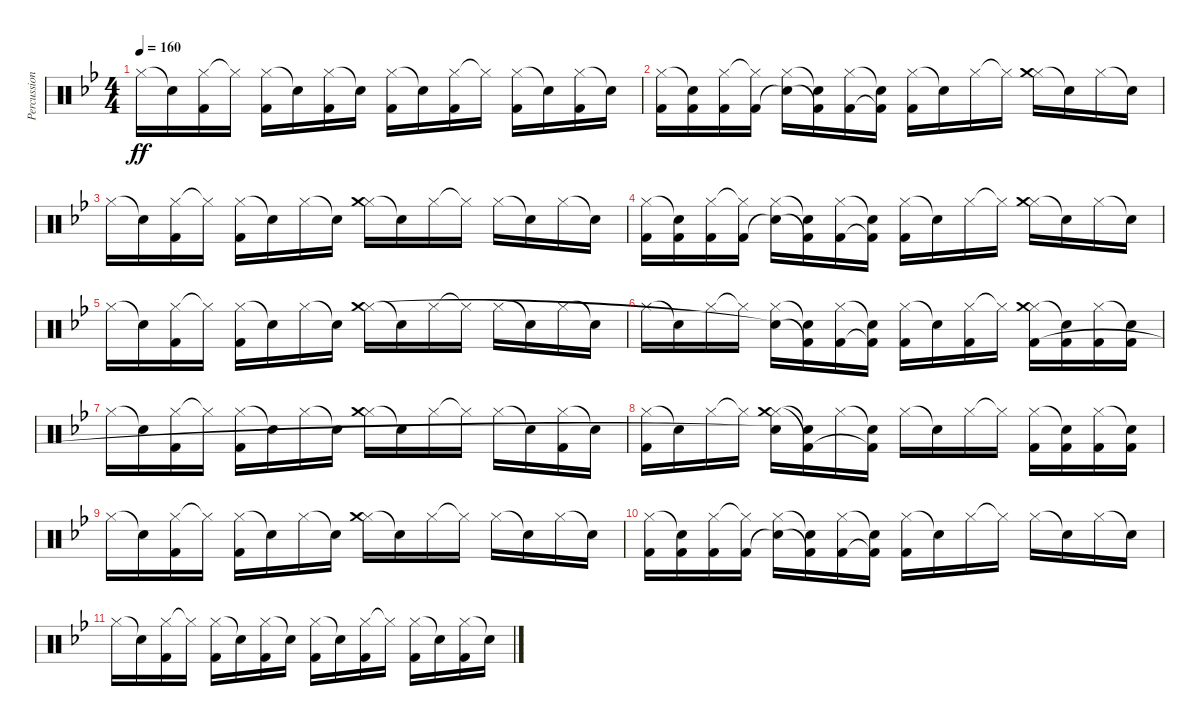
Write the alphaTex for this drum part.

\track ("Percussion" "Percussion") {instrument percussion}
\staff {score}
\articulation defaults
\ts (4 4)
\tempo 160
\clef neutral
\ks bb "Hi-Hat (closed)".16{dy ff} "Snare (hit)"{t}.16
("Hi-Hat (closed)" "Kick (hit) 2").16 "Hi-Hat (closed)"{t}.16 ("Hi-Hat (closed)" "Kick (hit) 2").16 "Snare (hit)"{t}.16 ("Hi-Hat (closed)" "Kick (hit) 2").16 "Snare (hit)"{t}.16 ("Hi-Hat (closed)" "Kick (hit) 2").16 "Snare (hit)"{t}.16 ("Hi-Hat (closed)" "Kick (hit) 2").16 "Hi-Hat (closed)"{t}.16 ("Hi-Hat (closed)" "Kick (hit) 2").16 "Snare (hit)"{t}.16 ("Hi-Hat (closed)" "Kick (hit) 2").16 "Snare (hit)"{t}.16 |
("Hi-Hat (closed)" "Kick (hit) 2").16 ("Snare (hit)"{t} "Kick (hit) 2").16 ("Hi-Hat (closed)" "Kick (hit) 2").16 ("Hi-Hat (closed)"{t} "Kick (hit) 2").16 ("Hi-Hat (closed)" "Snare (hit)"{t}).16 ("Snare (hit)"{t} "Kick (hit) 2"{t}).16 ("Hi-Hat (closed)" "Kick (hit) 2").16 ("Snare (hit)"{t} "Kick (hit) 2"{t}).16 ("Hi-Hat (closed)" "Kick (hit) 2").16 "Snare (hit)"{t}.16 "Hi-Hat (closed)".16 "Hi-Hat (closed)"{t}.16 ("Hi-Hat (closed)" "Crash medium (hit)").16 "Snare (hit)"{t}.16 "Hi-Hat (closed)".16 "Snare (hit)"{t}.16 |
"Hi-Hat (closed)".16 "Snare (hit)"{t}.16 ("Hi-Hat (closed)" "Kick (hit) 2").16 "Hi-Hat (closed)"{t}.16 ("Hi-Hat (closed)" "Kick (hit) 2").16 "Snare (hit)"{t}.16 "Hi-Hat (closed)".16 "Snare (hit)"{t}.16 ("Hi-Hat (closed)" "Crash medium (hit)").16 "Snare (hit)"{t}.16 "Hi-Hat (closed)".16 "Hi-Hat (closed)"{t}.16 "Hi-Hat (closed)".16 "Snare (hit)"{t}.16 "Hi-Hat (closed)".16 "Snare (hit)"{t}.16 |
("Hi-Hat (closed)" "Kick (hit) 2").16 ("Snare (hit)"{t} "Kick (hit) 2").16 ("Hi-Hat (closed)" "Kick (hit) 2").16 ("Hi-Hat (closed)"{t} "Kick (hit) 2").16 ("Hi-Hat (closed)" "Snare (hit)"{t}).16 ("Snare (hit)"{t} "Kick (hit) 2"{t}).16 ("Hi-Hat (closed)" "Kick (hit) 2").16 ("Snare (hit)"{t} "Kick (hit) 2"{t}).16 ("Hi-Hat (closed)" "Kick (hit) 2").16 "Snare (hit)"{t}.16 "Hi-Hat (closed)".16 "Hi-Hat (closed)"{t}.16 ("Hi-Hat (closed)" "Crash medium (hit)").16 "Snare (hit)"{t}.16 "Hi-Hat (closed)".16 "Snare (hit)"{t}.16 |
"Hi-Hat (closed)".16 "Snare (hit)"{t}.16 ("Hi-Hat (closed)" "Kick (hit) 2").16 "Hi-Hat (closed)"{t}.16 ("Hi-Hat (closed)" "Kick (hit) 2").16 "Snare (hit)"{t}.16 "Hi-Hat (closed)".16 "Snare (hit)"{t}.16 ("Hi-Hat (closed)" "Crash medium (hit)").16 "Snare (hit)"{t}.16 "Hi-Hat (closed)".16 "Hi-Hat (closed)"{t}.16 "Hi-Hat (closed)".16 "Snare (hit)"{t}.16 "Hi-Hat (closed)".16 "Snare (hit)"{t}.16 |
"Hi-Hat (closed)".16 "Snare (hit)"{t}.16 "Hi-Hat (closed)".16 "Hi-Hat (closed)"{t}.16 ("Hi-Hat (closed)" "Snare (hit)"{t}).16 ("Snare (hit)"{t} "Kick (hit) 2"{t}).16 ("Hi-Hat (closed)" "Kick (hit) 2").16 ("Snare (hit)"{t} "Kick (hit) 2"{t}).16 ("Hi-Hat (closed)" "Kick (hit) 2").16 "Snare (hit)"{t}.16 ("Hi-Hat (closed)" "Kick (hit) 2").16 "Hi-Hat (closed)"{t}.16 ("Hi-Hat (closed)" "Crash medium (hit)" "Kick (hit) 2").16 ("Snare (hit)"{t} "Kick (hit) 2").16 ("Hi-Hat (closed)" "Kick (hit) 2").16 ("Snare (hit)"{t} "Kick (hit) 2").16 |
"Hi-Hat (closed)".16 "Snare (hit)"{t}.16 ("Hi-Hat (closed)" "Kick (hit) 2").16 "Hi-Hat (closed)"{t}.16 ("Hi-Hat (closed)" "Kick (hit) 2").16 "Snare (hit)"{t}.16 "Hi-Hat (closed)".16 "Snare (hit)"{t}.16 ("Hi-Hat (closed)" "Crash medium (hit)").16 "Snare (hit)"{t}.16 "Hi-Hat (closed)".16 "Hi-Hat (closed)"{t}.16 "Hi-Hat (closed)".16 "Snare (hit)"{t}.16 ("Hi-Hat (closed)" "Kick (hit) 2").16 "Snare (hit)"{t}.16 |
("Hi-Hat (closed)" "Kick (hit) 2").16 "Snare (hit)"{t}.16 "Hi-Hat (closed)".16 "Hi-Hat (closed)"{t}.16 ("Hi-Hat (closed)" "Crash medium (hit)" "Snare (hit)"{t}).16 ("Snare (hit)"{t} "Kick (hit) 2"{t}).16 "Hi-Hat (closed)".16 ("Snare (hit)"{t} "Kick (hit) 2"{t}).16 "Hi-Hat (closed)".16 "Snare (hit)"{t}.16 "Hi-Hat (closed)".16 "Hi-Hat (closed)"{t}.16 ("Hi-Hat (closed)" "Kick (hit) 2").16 ("Snare (hit)"{t} "Kick (hit) 2").16 ("Hi-Hat (closed)" "Kick (hit) 2").16 ("Snare (hit)"{t} "Kick (hit) 2").16 |
"Hi-Hat (closed)".16 "Snare (hit)"{t}.16 ("Hi-Hat (closed)" "Kick (hit) 2").16 "Hi-Hat (closed)"{t}.16 ("Hi-Hat (closed)" "Kick (hit) 2").16 "Snare (hit)"{t}.16 "Hi-Hat (closed)".16 "Snare (hit)"{t}.16 ("Hi-Hat (closed)" "Crash medium (hit)").16 "Snare (hit)"{t}.16 "Hi-Hat (closed)".16 "Hi-Hat (closed)"{t}.16 "Hi-Hat (closed)".16 "Snare (hit)"{t}.16 "Hi-Hat (closed)".16 "Snare (hit)"{t}.16 |
("Hi-Hat (closed)" "Kick (hit) 2").16 ("Snare (hit)"{t} "Kick (hit) 2").16 ("Hi-Hat (closed)" "Kick (hit) 2").16 ("Hi-Hat (closed)"{t} "Kick (hit) 2").16 ("Hi-Hat (closed)" "Snare (hit)"{t}).16 ("Snare (hit)"{t} "Kick (hit) 2"{t}).16 ("Hi-Hat (closed)" "Kick (hit) 2").16 ("Snare (hit)"{t} "Kick (hit) 2"{t}).16 ("Hi-Hat (closed)" "Kick (hit) 2").16 "Snare (hit)"{t}.16 "Hi-Hat (closed)".16 "Hi-Hat (closed)"{t}.16 "Hi-Hat (closed)".16 "Snare (hit)"{t}.16 "Hi-Hat (closed)".16 "Snare (hit)"{t}.16 |
"Hi-Hat (closed)".16 "Snare (hit)"{t}.16 ("Hi-Hat (closed)" "Kick (hit) 2").16 "Hi-Hat (closed)"{t}.16 ("Hi-Hat (closed)" "Kick (hit) 2").16 "Snare (hit)"{t}.16 ("Hi-Hat (closed)" "Kick (hit) 2").16 "Snare (hit)"{t}.16 ("Hi-Hat (closed)" "Kick (hit) 2").16 "Snare (hit)"{t}.16 ("Hi-Hat (closed)" "Kick (hit) 2").16 "Hi-Hat (closed)"{t}.16 ("Hi-Hat (closed)" "Kick (hit) 2").16 "Snare (hit)"{t}.16 ("Hi-Hat (closed)" "Kick (hit) 2").16 "Snare (hit)"{t}.16
